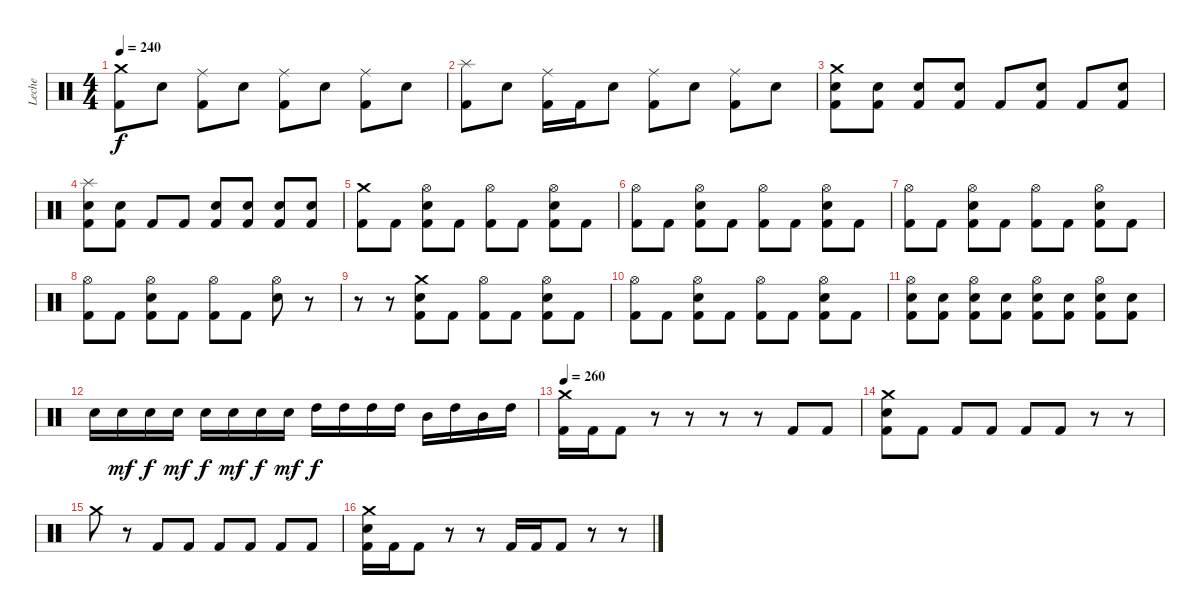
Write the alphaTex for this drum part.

\track ("Leche" "Leche") {instrument percussion}
\staff {score}
\articulation defaults
\ts (4 4)
\tempo 240
\clef neutral
\ks c
("Crash medium (hit)" "Kick (hit) 2").8{dy f} "Electric Snare (hit)".8 ("Ride (middle)" "Kick (hit) 2").8 "Electric Snare (hit)".8 ("Ride (middle)" "Kick (hit) 2").8 "Electric Snare (hit)".8 ("Ride (middle)" "Kick (hit) 2").8 "Electric Snare (hit)".8 |
("Splash (hit)" "Kick (hit) 2").8 "Electric Snare (hit)".8 ("Ride (middle)" "Kick (hit) 2").16 "Kick (hit) 2".16 "Electric Snare (hit)".8 ("Ride (middle)" "Kick (hit) 2").8 "Electric Snare (hit)".8 ("Ride (middle)" "Kick (hit) 2").8 "Electric Snare (hit)".8 |
("Crash medium (hit)" "Electric Snare (hit)" "Kick (hit) 2").8 ("Electric Snare (hit)" "Kick (hit) 2").8 ("Electric Snare (hit)" "Kick (hit) 2").8 ("Electric Snare (hit)" "Kick (hit) 2").8 "Kick (hit) 2".8 ("Electric Snare (hit)" "Kick (hit) 2").8 "Kick (hit) 2".8 ("Electric Snare (hit)" "Kick (hit) 2").8 |
("Splash (hit)" "Electric Snare (hit)" "Kick (hit) 2").8 ("Electric Snare (hit)" "Kick (hit) 2").8 "Kick (hit) 2".8 "Kick (hit) 2".8 ("Electric Snare (hit)" "Kick (hit) 2").8 ("Electric Snare (hit)" "Kick (hit) 2").8 ("Electric Snare (hit)" "Kick (hit) 2").8 ("Electric Snare (hit)" "Kick (hit) 2").8 |
("Crash medium (hit)" "Kick (hit) 2").8 "Kick (hit) 2".8 ("Hi-Hat (open)" "Electric Snare (hit)" "Kick (hit) 2").8 "Kick (hit) 2".8 ("Hi-Hat (open)" "Kick (hit) 2").8 "Kick (hit) 2".8 ("Hi-Hat (open)" "Electric Snare (hit)" "Kick (hit) 2").8 "Kick (hit) 2".8 |
("Hi-Hat (open)" "Kick (hit) 2").8 "Kick (hit) 2".8 ("Hi-Hat (open)" "Electric Snare (hit)" "Kick (hit) 2").8 "Kick (hit) 2".8 ("Hi-Hat (open)" "Kick (hit) 2").8 "Kick (hit) 2".8 ("Hi-Hat (open)" "Electric Snare (hit)" "Kick (hit) 2").8 "Kick (hit) 2".8 |
("Hi-Hat (open)" "Kick (hit) 2").8 "Kick (hit) 2".8 ("Hi-Hat (open)" "Electric Snare (hit)" "Kick (hit) 2").8 "Kick (hit) 2".8 ("Hi-Hat (open)" "Kick (hit) 2").8 "Kick (hit) 2".8 ("Hi-Hat (open)" "Electric Snare (hit)" "Kick (hit) 2").8 "Kick (hit) 2".8 |
("Hi-Hat (open)" "Kick (hit) 2").8 "Kick (hit) 2".8 ("Hi-Hat (open)" "Electric Snare (hit)" "Kick (hit) 2").8 "Kick (hit) 2".8 ("Hi-Hat (open)" "Kick (hit) 2").8 "Kick (hit) 2".8 ("Hi-Hat (open)" "Electric Snare (hit)").8 r.8 |
r.8 r.8 ("Crash medium (hit)" "Electric Snare (hit)" "Kick (hit) 2").8 "Kick (hit) 2".8 ("Hi-Hat (open)" "Kick (hit) 2").8 "Kick (hit) 2".8 ("Hi-Hat (open)" "Electric Snare (hit)" "Kick (hit) 2").8 "Kick (hit) 2".8 |
("Hi-Hat (open)" "Kick (hit) 2").8 "Kick (hit) 2".8 ("Hi-Hat (open)" "Electric Snare (hit)" "Kick (hit) 2").8 "Kick (hit) 2".8 ("Hi-Hat (open)" "Kick (hit) 2").8 "Kick (hit) 2".8 ("Hi-Hat (open)" "Electric Snare (hit)" "Kick (hit) 2").8 "Kick (hit) 2".8 |
("Hi-Hat (open)" "Electric Snare (hit)" "Kick (hit) 2").8 ("Electric Snare (hit)" "Kick (hit) 2").8 ("Hi-Hat (open)" "Electric Snare (hit)" "Kick (hit) 2").8 ("Electric Snare (hit)" "Kick (hit) 2").8 ("Hi-Hat (open)" "Electric Snare (hit)" "Kick (hit) 2").8 ("Electric Snare (hit)" "Kick (hit) 2").8 ("Hi-Hat (open)" "Electric Snare (hit)" "Kick (hit) 2").8 ("Electric Snare (hit)" "Kick (hit) 2").8 |
"Electric Snare (hit)".16 "Electric Snare (hit)".16{dy mf} "Electric Snare (hit)".16{dy f} "Electric Snare (hit)".16{dy mf} "Electric Snare (hit)".16{dy f} "Electric Snare (hit)".16{dy mf} "Electric Snare (hit)".16{dy f} "Electric Snare (hit)".16{dy mf} "High Tom (hit)".16{dy f} "High Tom (hit)".16 "High Tom (hit)".16 "High Tom (hit)".16 "Mid Tom (hit)".16 "High Tom (hit)".16 "Mid Tom (hit)".16 "High Tom (hit)".16 |
\tempo 260
("Crash medium (hit)" "Kick (hit) 2").16 "Kick (hit) 2".16 "Kick (hit) 2".8 r.8 r.8 r.8 r.8 "Kick (hit) 2".8 "Kick (hit) 2".8 |
("Crash medium (hit)" "Electric Snare (hit)" "Kick (hit) 2").8 "Kick (hit) 2".8 "Kick (hit) 2".8 "Kick (hit) 2".8 "Kick (hit) 2".8 "Kick (hit) 2".8 r.8 r.8 |
"Crash medium (hit)".8 r.8 "Kick (hit) 2".8 "Kick (hit) 2".8 "Kick (hit) 2".8 "Kick (hit) 2".8 "Kick (hit) 2".8 "Kick (hit) 2".8 |
("Crash medium (hit)" "Electric Snare (hit)" "Kick (hit) 2").16 "Kick (hit) 2".16 "Kick (hit) 2".8 r.8 r.8 "Kick (hit) 2".16 "Kick (hit) 2".16 "Kick (hit) 2".8 r.8 r.8
